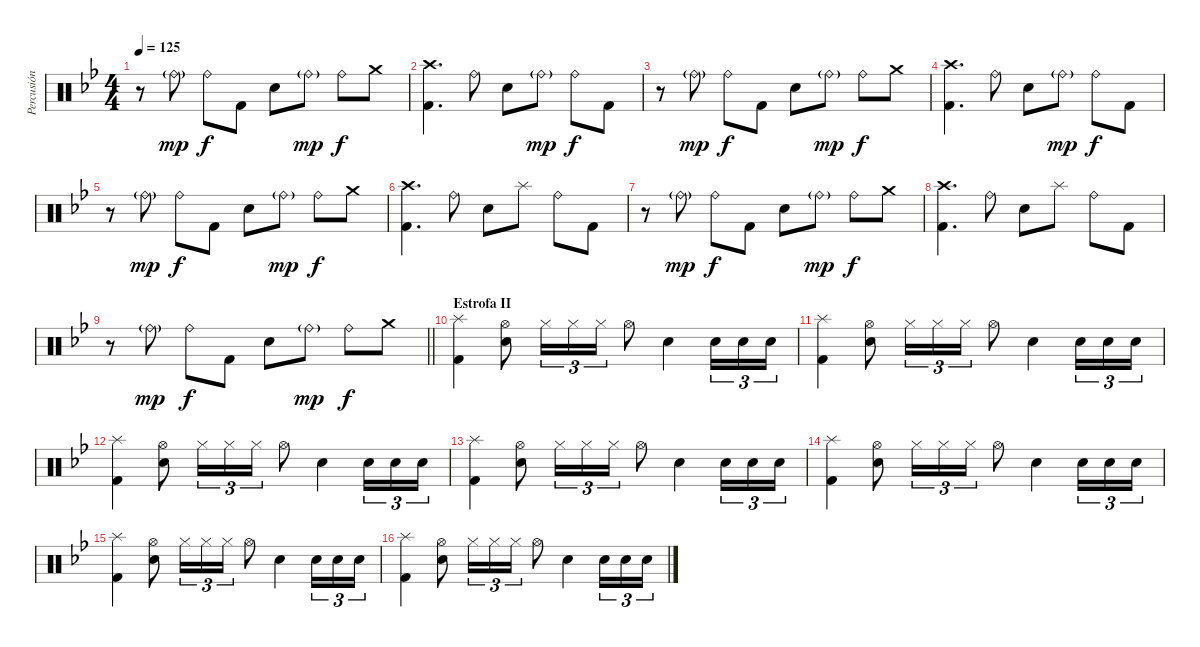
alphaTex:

\track ("Percusión" "Percusión") {instrument percussion}
\staff {score}
\articulation defaults
\ts (4 4)
\tempo 125
\clef neutral
\ks gminor
r.8{dy f} "Ride (bell)"{g}.8{dy mp} "Ride (bell)".8{dy f} "Kick (hit) 2".8 "Snare (hit) 2".8 "Ride (bell)"{g}.8{dy mp} "Ride (bell)".8{dy f} "Crash medium (hit)".8 |
("Crash high (hit)" "Kick (hit) 2").4{d} "Ride (bell)".8 "Snare (hit) 2".8 "Ride (bell)"{g}.8{dy mp} "Ride (bell)".8{dy f} "Kick (hit) 2".8 |
r.8 "Ride (bell)"{g}.8{dy mp} "Ride (bell)".8{dy f} "Kick (hit) 2".8 "Snare (hit) 2".8 "Ride (bell)"{g}.8{dy mp} "Ride (bell)".8{dy f} "Crash medium (hit)".8 |
("Crash high (hit)" "Kick (hit) 2").4{d} "Ride (bell)".8 "Snare (hit) 2".8 "Ride (bell)"{g}.8{dy mp} "Ride (bell)".8{dy f} "Kick (hit) 2".8 |
r.8 "Ride (bell)"{g}.8{dy mp} "Ride (bell)".8{dy f} "Kick (hit) 2".8 "Snare (hit) 2".8 "Ride (bell)"{g}.8{dy mp} "Ride (bell)".8{dy f} "Crash medium (hit)".8 |
("Crash high (hit)" "Kick (hit) 2").4{d} "Ride (bell)".8 "Snare (hit) 2".8 "Splash (hit)".8 "Ride (bell)".8 "Kick (hit) 2".8 |
r.8 "Ride (bell)"{g}.8{dy mp} "Ride (bell)".8{dy f} "Kick (hit) 2".8 "Snare (hit) 2".8 "Ride (bell)"{g}.8{dy mp} "Ride (bell)".8{dy f} "Crash medium (hit)".8 |
("Crash high (hit)" "Kick (hit) 2").4{d} "Ride (bell)".8 "Snare (hit) 2".8 "Splash (hit)".8 "Ride (bell)".8 "Kick (hit) 2".8 |
\barLineRight lightlight
r.8 "Ride (bell)"{g}.8{dy mp} "Ride (bell)".8{dy f} "Kick (hit) 2".8 "Snare (hit) 2".8 "Ride (bell)"{g}.8{dy mp} "Ride (bell)".8{dy f} "Crash medium (hit)".8 |
\section ("" "Estrofa II")
("Splash (hit)" "Kick (hit) 2").4 ("Hi-Hat (open)" "Snare (hit) 2").8 "Hi-Hat (closed)".16{tu (3 2)} "Hi-Hat (closed)".16{tu (3 2)} "Hi-Hat (closed)".16{tu (3 2)} "Hi-Hat (open)".8 "Snare (hit) 2".4 "Snare (hit) 2".16{tu (3 2)} "Snare (hit) 2".16{tu (3 2)} "Snare (hit) 2".16{tu (3 2)} |
("Splash (hit)" "Kick (hit) 2").4 ("Hi-Hat (open)" "Snare (hit) 2").8 "Hi-Hat (closed)".16{tu (3 2)} "Hi-Hat (closed)".16{tu (3 2)} "Hi-Hat (closed)".16{tu (3 2)} "Hi-Hat (open)".8 "Snare (hit) 2".4 "Snare (hit) 2".16{tu (3 2)} "Snare (hit) 2".16{tu (3 2)} "Snare (hit) 2".16{tu (3 2)} |
("Splash (hit)" "Kick (hit) 2").4 ("Hi-Hat (open)" "Snare (hit) 2").8 "Hi-Hat (closed)".16{tu (3 2)} "Hi-Hat (closed)".16{tu (3 2)} "Hi-Hat (closed)".16{tu (3 2)} "Hi-Hat (open)".8 "Snare (hit) 2".4 "Snare (hit) 2".16{tu (3 2)} "Snare (hit) 2".16{tu (3 2)} "Snare (hit) 2".16{tu (3 2)} |
("Splash (hit)" "Kick (hit) 2").4 ("Hi-Hat (open)" "Snare (hit) 2").8 "Hi-Hat (closed)".16{tu (3 2)} "Hi-Hat (closed)".16{tu (3 2)} "Hi-Hat (closed)".16{tu (3 2)} "Hi-Hat (open)".8 "Snare (hit) 2".4 "Snare (hit) 2".16{tu (3 2)} "Snare (hit) 2".16{tu (3 2)} "Snare (hit) 2".16{tu (3 2)} |
("Splash (hit)" "Kick (hit) 2").4 ("Hi-Hat (open)" "Snare (hit) 2").8 "Hi-Hat (closed)".16{tu (3 2)} "Hi-Hat (closed)".16{tu (3 2)} "Hi-Hat (closed)".16{tu (3 2)} "Hi-Hat (open)".8 "Snare (hit) 2".4 "Snare (hit) 2".16{tu (3 2)} "Snare (hit) 2".16{tu (3 2)} "Snare (hit) 2".16{tu (3 2)} |
("Splash (hit)" "Kick (hit) 2").4 ("Hi-Hat (open)" "Snare (hit) 2").8 "Hi-Hat (closed)".16{tu (3 2)} "Hi-Hat (closed)".16{tu (3 2)} "Hi-Hat (closed)".16{tu (3 2)} "Hi-Hat (open)".8 "Snare (hit) 2".4 "Snare (hit) 2".16{tu (3 2)} "Snare (hit) 2".16{tu (3 2)} "Snare (hit) 2".16{tu (3 2)} |
("Splash (hit)" "Kick (hit) 2").4 ("Hi-Hat (open)" "Snare (hit) 2").8 "Hi-Hat (closed)".16{tu (3 2)} "Hi-Hat (closed)".16{tu (3 2)} "Hi-Hat (closed)".16{tu (3 2)} "Hi-Hat (open)".8 "Snare (hit) 2".4 "Snare (hit) 2".16{tu (3 2)} "Snare (hit) 2".16{tu (3 2)} "Snare (hit) 2".16{tu (3 2)}
